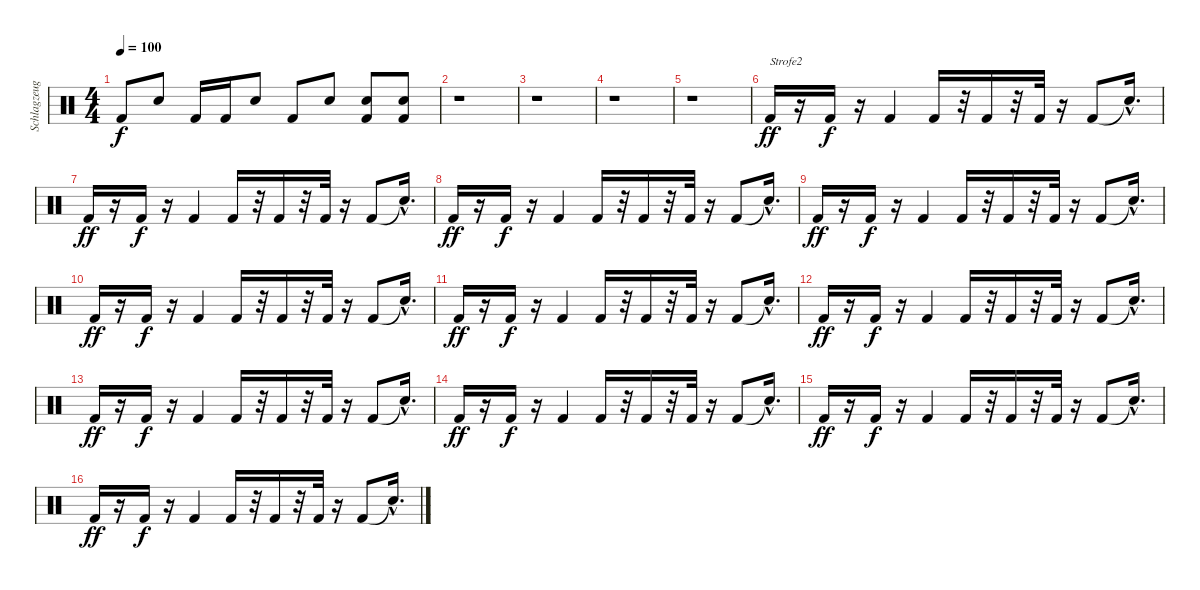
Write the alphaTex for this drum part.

\track ("Schlagzeug" "Schlagzeug") {instrument percussion}
\staff {score}
\articulation defaults
\ts (4 4)
\tempo 100
\clef neutral
\ks c "Kick (hit) 2".8{dy f} "Snare (hit) 2".8 "Kick (hit) 2".16 "Kick (hit) 2".16 "Snare (hit) 2".8 "Kick (hit) 2".8 "Snare (hit) 2".8
("Snare (hit) 2" "Kick (hit) 2").8 ("Snare (hit) 2" "Kick (hit) 2").8 |
r.1 |
r.1 |
r.1 |
r.1 |
"Kick (hit) 2".16{txt "Strofe2" dy ff} r.16 "Kick (hit) 2".16{dy f} r.16 "Kick (hit) 2".4 "Kick (hit) 2".16 r.32 "Kick (hit) 2".16 r.32 "Kick (hit) 2".32 r.16 "Kick (hit) 2".8 "Snare (hit)"{hac t}.16{d} |
"Kick (hit) 2".16{dy ff} r.16 "Kick (hit) 2".16{dy f} r.16 "Kick (hit) 2".4 "Kick (hit) 2".16 r.32 "Kick (hit) 2".16 r.32 "Kick (hit) 2".32 r.16 "Kick (hit) 2".8 "Snare (hit)"{hac t}.16{d} |
"Kick (hit) 2".16{dy ff} r.16 "Kick (hit) 2".16{dy f} r.16 "Kick (hit) 2".4 "Kick (hit) 2".16 r.32 "Kick (hit) 2".16 r.32 "Kick (hit) 2".32 r.16 "Kick (hit) 2".8 "Snare (hit)"{hac t}.16{d} |
"Kick (hit) 2".16{dy ff} r.16 "Kick (hit) 2".16{dy f} r.16 "Kick (hit) 2".4 "Kick (hit) 2".16 r.32 "Kick (hit) 2".16 r.32 "Kick (hit) 2".32 r.16 "Kick (hit) 2".8 "Snare (hit)"{hac t}.16{d} |
"Kick (hit) 2".16{dy ff} r.16 "Kick (hit) 2".16{dy f} r.16 "Kick (hit) 2".4 "Kick (hit) 2".16 r.32 "Kick (hit) 2".16 r.32 "Kick (hit) 2".32 r.16 "Kick (hit) 2".8 "Snare (hit)"{hac t}.16{d} |
"Kick (hit) 2".16{dy ff} r.16 "Kick (hit) 2".16{dy f} r.16 "Kick (hit) 2".4 "Kick (hit) 2".16 r.32 "Kick (hit) 2".16 r.32 "Kick (hit) 2".32 r.16 "Kick (hit) 2".8 "Snare (hit)"{hac t}.16{d} |
"Kick (hit) 2".16{dy ff} r.16 "Kick (hit) 2".16{dy f} r.16 "Kick (hit) 2".4 "Kick (hit) 2".16 r.32 "Kick (hit) 2".16 r.32 "Kick (hit) 2".32 r.16 "Kick (hit) 2".8 "Snare (hit)"{hac t}.16{d} |
"Kick (hit) 2".16{dy ff} r.16 "Kick (hit) 2".16{dy f} r.16 "Kick (hit) 2".4 "Kick (hit) 2".16 r.32 "Kick (hit) 2".16 r.32 "Kick (hit) 2".32 r.16 "Kick (hit) 2".8 "Snare (hit)"{hac t}.16{d} |
"Kick (hit) 2".16{dy ff} r.16 "Kick (hit) 2".16{dy f} r.16 "Kick (hit) 2".4 "Kick (hit) 2".16 r.32 "Kick (hit) 2".16 r.32 "Kick (hit) 2".32 r.16 "Kick (hit) 2".8 "Snare (hit)"{hac t}.16{d} |
"Kick (hit) 2".16{dy ff} r.16 "Kick (hit) 2".16{dy f} r.16 "Kick (hit) 2".4 "Kick (hit) 2".16 r.32 "Kick (hit) 2".16 r.32 "Kick (hit) 2".32 r.16 "Kick (hit) 2".8 "Snare (hit)"{hac t}.16{d} |
"Kick (hit) 2".16{dy ff} r.16 "Kick (hit) 2".16{dy f} r.16 "Kick (hit) 2".4 "Kick (hit) 2".16 r.32 "Kick (hit) 2".16 r.32 "Kick (hit) 2".32 r.16 "Kick (hit) 2".8 "Snare (hit)"{hac t}.16{d}
